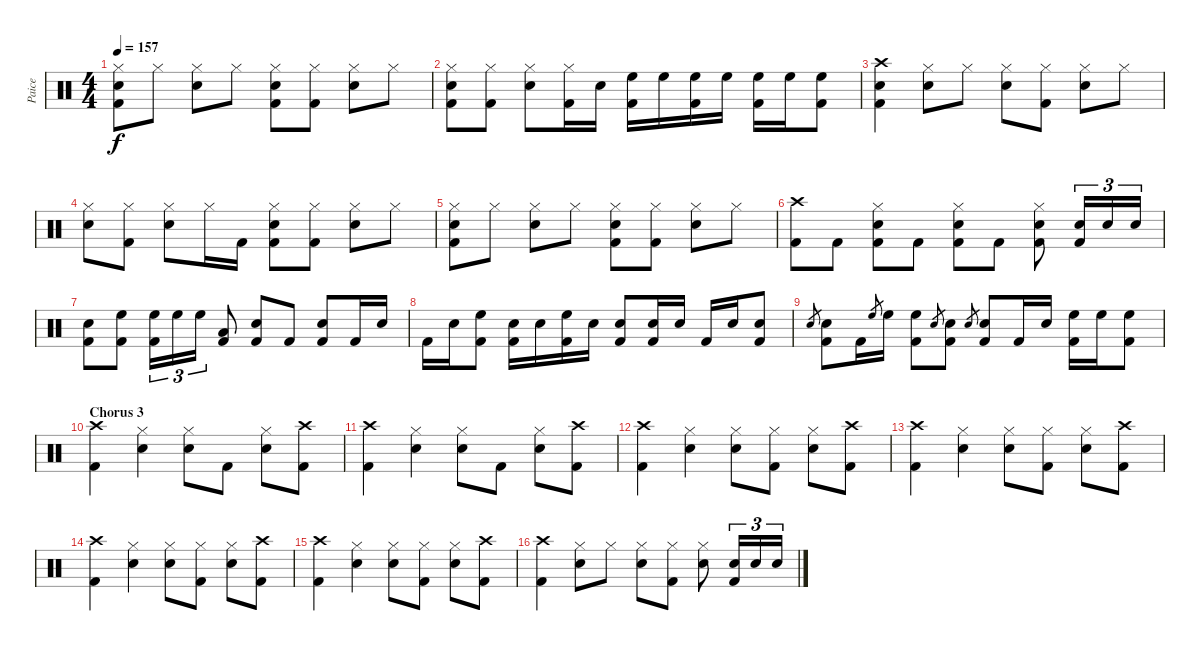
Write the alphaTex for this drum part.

\track ("Paice" "Paice") {instrument percussion}
\staff {score}
\articulation defaults
\ts (4 4)
\tempo 157
\clef neutral
\ks c
("Hi-Hat (closed)" "Snare (hit) 2" "Kick (hit) 2").8{dy f} "Hi-Hat (closed)".8 ("Hi-Hat (closed)" "Snare (hit) 2").8 "Hi-Hat (closed)".8 ("Hi-Hat (closed)" "Snare (hit) 2" "Kick (hit) 2").8 ("Hi-Hat (closed)" "Kick (hit) 2").8 ("Hi-Hat (closed)" "Snare (hit) 2").8 "Hi-Hat (closed)".8 |
("Hi-Hat (closed)" "Snare (hit) 2" "Kick (hit) 2").8 ("Hi-Hat (closed)" "Kick (hit) 2").8 ("Hi-Hat (closed)" "Snare (hit) 2").8 ("Hi-Hat (closed)" "Kick (hit) 2").16 "Snare (hit) 2".16 ("High Floor Tom (hit)" "Kick (hit) 2").16 "High Floor Tom (hit)".16 ("High Floor Tom (hit)" "Kick (hit) 2").16 "High Floor Tom (hit)".16 ("High Floor Tom (hit)" "Kick (hit) 2").16 "High Floor Tom (hit)".16 ("High Floor Tom (hit)" "Kick (hit) 2").8 |
("Crash high (hit)" "Snare (hit) 2" "Kick (hit) 2").4 ("Hi-Hat (closed)" "Snare (hit) 2").8 "Hi-Hat (closed)".8 ("Hi-Hat (closed)" "Snare (hit) 2").8 ("Hi-Hat (closed)" "Kick (hit) 2").8 ("Hi-Hat (closed)" "Snare (hit) 2").8 "Hi-Hat (closed)".8 |
("Hi-Hat (closed)" "Snare (hit) 2").8 ("Hi-Hat (closed)" "Kick (hit) 2").8 ("Hi-Hat (closed)" "Snare (hit) 2").8 "Hi-Hat (closed)".16 "Kick (hit) 2".16 ("Hi-Hat (closed)" "Snare (hit) 2" "Kick (hit) 2").8 ("Hi-Hat (closed)" "Kick (hit) 2").8 ("Hi-Hat (closed)" "Snare (hit) 2").8 "Hi-Hat (closed)".8 |
("Hi-Hat (closed)" "Snare (hit) 2" "Kick (hit) 2").8 "Hi-Hat (closed)".8 ("Hi-Hat (closed)" "Snare (hit) 2").8 "Hi-Hat (closed)".8 ("Hi-Hat (closed)" "Snare (hit) 2" "Kick (hit) 2").8 ("Hi-Hat (closed)" "Kick (hit) 2").8 ("Hi-Hat (closed)" "Snare (hit) 2").8 "Hi-Hat (closed)".8 |
("Crash high (hit)" "Kick (hit) 2").8 "Kick (hit) 2".8 ("Hi-Hat (closed)" "Snare (hit) 2" "Kick (hit) 2").8 "Kick (hit) 2".8 ("Hi-Hat (closed)" "Snare (hit) 2" "Kick (hit) 2").8 "Kick (hit) 2".8 ("Hi-Hat (closed)" "Snare (hit) 2" "Kick (hit) 2").8 ("Snare (hit) 2" "Kick (hit) 2").16{tu (3 2)} "Snare (hit) 2".16{tu (3 2)} "Snare (hit) 2".16{tu (3 2)} |
("Snare (hit) 2" "Kick (hit) 2").8 ("High Floor Tom (hit)" "Kick (hit) 2").8 ("High Floor Tom (hit)" "Kick (hit) 2").16{tu (3 2)} "High Floor Tom (hit)".16{tu (3 2)} "High Floor Tom (hit)".16{tu (3 2)} ("Low Tom (hit)" "Kick (hit) 2").8 ("Snare (hit) 2" "Kick (hit) 2").8 "Kick (hit) 2".8 ("Snare (hit) 2" "Kick (hit) 2").8 "Kick (hit) 2".16 "Snare (hit) 2".16 |
"Kick (hit) 2".16 "Snare (hit) 2".16 ("High Floor Tom (hit)" "Kick (hit) 2").8 ("Snare (hit) 2" "Kick (hit) 2").16 "Snare (hit) 2".16 ("High Floor Tom (hit)" "Kick (hit) 2").16 "Snare (hit) 2".16 ("Snare (hit) 2" "Kick (hit) 2").8 ("Snare (hit) 2" "Kick (hit) 2").16 "Snare (hit) 2".16 "Kick (hit) 2".16 "Snare (hit) 2".16 ("Snare (hit) 2" "Kick (hit) 2").8 |
"Snare (hit) 2".8{gr} ("Snare (hit) 2" "Kick (hit) 2").8 "Kick (hit) 2".16 "High Floor Tom (hit)".8{gr} "High Floor Tom (hit)".16 ("High Floor Tom (hit)" "Kick (hit) 2").8 "Snare (hit) 2".8{gr} ("Snare (hit) 2" "Kick (hit) 2").8 "Snare (hit) 2".8{gr} ("Snare (hit) 2" "Kick (hit) 2").8 "Kick (hit) 2".16 "Snare (hit) 2".16 ("High Floor Tom (hit)" "Kick (hit) 2").16 "High Floor Tom (hit)".16 ("High Floor Tom (hit)" "Kick (hit) 2").8 |
\section ("" "Chorus 3")
("Crash high (hit)" "Kick (hit) 2").4 ("Hi-Hat (closed)" "Snare (hit) 2").4 ("Hi-Hat (closed)" "Snare (hit) 2").8 "Kick (hit) 2".8 ("Hi-Hat (closed)" "Snare (hit) 2").8 ("Crash high (hit)" "Kick (hit) 2").8 |
("Crash high (hit)" "Kick (hit) 2").4 ("Hi-Hat (closed)" "Snare (hit) 2").4 ("Hi-Hat (closed)" "Snare (hit) 2").8 "Kick (hit) 2".8 ("Hi-Hat (closed)" "Snare (hit) 2").8 ("Crash high (hit)" "Kick (hit) 2").8 |
("Crash high (hit)" "Kick (hit) 2").4 ("Hi-Hat (closed)" "Snare (hit) 2").4 ("Hi-Hat (closed)" "Snare (hit) 2").8 ("Hi-Hat (closed)" "Kick (hit) 2").8 ("Hi-Hat (closed)" "Snare (hit) 2").8 ("Crash high (hit)" "Kick (hit) 2").8 |
("Crash high (hit)" "Kick (hit) 2").4 ("Hi-Hat (closed)" "Snare (hit) 2").4 ("Hi-Hat (closed)" "Snare (hit) 2").8 ("Hi-Hat (closed)" "Kick (hit) 2").8 ("Hi-Hat (closed)" "Snare (hit) 2").8 ("Crash high (hit)" "Kick (hit) 2").8 |
("Crash high (hit)" "Kick (hit) 2").4 ("Hi-Hat (closed)" "Snare (hit) 2").4 ("Hi-Hat (closed)" "Snare (hit) 2").8 ("Hi-Hat (closed)" "Kick (hit) 2").8 ("Hi-Hat (closed)" "Snare (hit) 2").8 ("Crash high (hit)" "Kick (hit) 2").8 |
("Crash high (hit)" "Kick (hit) 2").4 ("Hi-Hat (closed)" "Snare (hit) 2").4 ("Hi-Hat (closed)" "Snare (hit) 2").8 ("Hi-Hat (closed)" "Kick (hit) 2").8 ("Hi-Hat (closed)" "Snare (hit) 2").8 ("Crash high (hit)" "Kick (hit) 2").8 |
("Crash high (hit)" "Kick (hit) 2").4 ("Hi-Hat (closed)" "Snare (hit) 2").8 "Hi-Hat (closed)".8 ("Hi-Hat (closed)" "Snare (hit) 2").8 ("Hi-Hat (closed)" "Kick (hit) 2").8 ("Hi-Hat (closed)" "Snare (hit) 2").8 ("Snare (hit) 2" "Kick (hit) 2").16{tu (3 2)} "Snare (hit) 2".16{tu (3 2)} "Snare (hit) 2".16{tu (3 2)}
